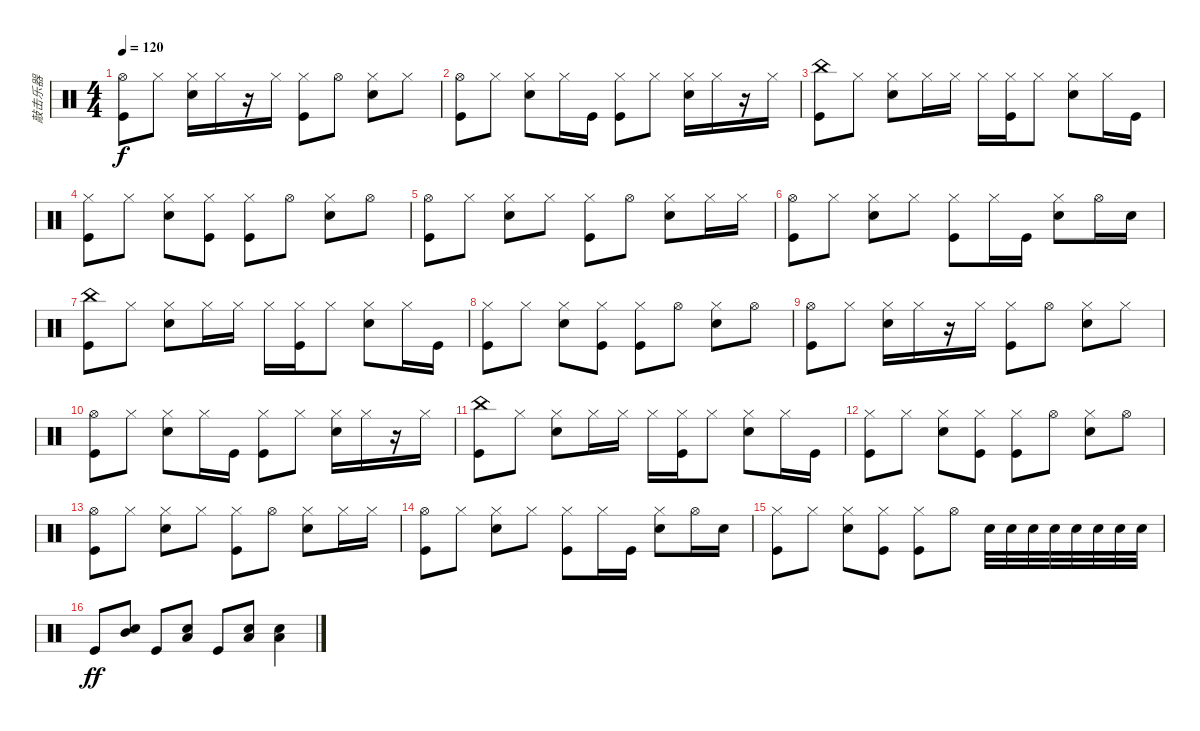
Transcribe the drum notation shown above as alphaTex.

\track ("敲击乐器" "敲击乐器") {instrument percussion}
\staff {score}
\articulation defaults
\ts (4 4)
\tempo 120
\clef neutral
\ks c
("Kick (hit)" "Hi-Hat (open)").8{dy f} "Hi-Hat (closed)".8 ("Snare (hit) 2" "Hi-Hat (closed)").16 "Hi-Hat (closed)".16 r.16 "Hi-Hat (closed)".16 ("Kick (hit)" "Hi-Hat (closed)").8 "Hi-Hat (open)".8 ("Snare (hit) 2" "Hi-Hat (closed)").8 "Hi-Hat (closed)".8 |
("Kick (hit)" "Hi-Hat (open)").8 "Hi-Hat (closed)".8 ("Snare (hit) 2" "Hi-Hat (closed)").8 "Hi-Hat (closed)".16 "Kick (hit)".16 ("Kick (hit)" "Hi-Hat (closed)").8 "Hi-Hat (closed)".8 ("Snare (hit) 2" "Hi-Hat (closed)").16 "Hi-Hat (closed)".16 r.16 "Hi-Hat (closed)".16 |
("Kick (hit)" "China (hit)").8 "Hi-Hat (closed)".8 ("Snare (hit) 2" "Hi-Hat (closed)").8 "Hi-Hat (closed)".16 "Hi-Hat (closed)".16 "Hi-Hat (closed)".16 ("Kick (hit)" "Hi-Hat (closed)").16 "Hi-Hat (closed)".8 ("Snare (hit) 2" "Hi-Hat (closed)").8 "Hi-Hat (closed)".16 "Kick (hit)".16 |
("Kick (hit)" "Hi-Hat (closed)").8 "Hi-Hat (closed)".8 ("Snare (hit) 2" "Hi-Hat (closed)").8 ("Hi-Hat (closed)" "Kick (hit)").8 ("Kick (hit)" "Hi-Hat (closed)").8 "Hi-Hat (open)".8 ("Snare (hit) 2" "Hi-Hat (closed)").8 "Hi-Hat (open)".8 |
("Kick (hit)" "Hi-Hat (open)").8 "Hi-Hat (closed)".8 ("Snare (hit) 2" "Hi-Hat (closed)").8 "Hi-Hat (closed)".8 ("Kick (hit)" "Hi-Hat (closed)").8 "Hi-Hat (open)".8 ("Snare (hit) 2" "Hi-Hat (closed)").8 "Hi-Hat (closed)".16 "Hi-Hat (closed)".16 |
("Kick (hit)" "Hi-Hat (open)").8 "Hi-Hat (closed)".8 ("Snare (hit) 2" "Hi-Hat (closed)").8 "Hi-Hat (closed)".8 ("Kick (hit)" "Hi-Hat (closed)").8 "Hi-Hat (closed)".16 "Kick (hit)".16 ("Snare (hit) 2" "Hi-Hat (closed)").8 "Hi-Hat (open)".16 "Snare (hit) 2".16 |
("Kick (hit)" "China (hit)").8 "Hi-Hat (closed)".8 ("Snare (hit) 2" "Hi-Hat (closed)").8 "Hi-Hat (closed)".16 "Hi-Hat (closed)".16 "Hi-Hat (closed)".16 ("Kick (hit)" "Hi-Hat (closed)").16 "Hi-Hat (closed)".8 ("Snare (hit) 2" "Hi-Hat (closed)").8 "Hi-Hat (closed)".16 "Kick (hit)".16 |
("Kick (hit)" "Hi-Hat (closed)").8 "Hi-Hat (closed)".8 ("Snare (hit) 2" "Hi-Hat (closed)").8 ("Hi-Hat (closed)" "Kick (hit)").8 ("Kick (hit)" "Hi-Hat (closed)").8 "Hi-Hat (open)".8 ("Snare (hit) 2" "Hi-Hat (closed)").8 "Hi-Hat (open)".8 |
("Kick (hit)" "Hi-Hat (open)").8 "Hi-Hat (closed)".8 ("Snare (hit) 2" "Hi-Hat (closed)").16 "Hi-Hat (closed)".16 r.16 "Hi-Hat (closed)".16 ("Kick (hit)" "Hi-Hat (closed)").8 "Hi-Hat (open)".8 ("Snare (hit) 2" "Hi-Hat (closed)").8 "Hi-Hat (closed)".8 |
("Kick (hit)" "Hi-Hat (open)").8 "Hi-Hat (closed)".8 ("Snare (hit) 2" "Hi-Hat (closed)").8 "Hi-Hat (closed)".16 "Kick (hit)".16 ("Kick (hit)" "Hi-Hat (closed)").8 "Hi-Hat (closed)".8 ("Snare (hit) 2" "Hi-Hat (closed)").16 "Hi-Hat (closed)".16 r.16 "Hi-Hat (closed)".16 |
("Kick (hit)" "China (hit)").8 "Hi-Hat (closed)".8 ("Snare (hit) 2" "Hi-Hat (closed)").8 "Hi-Hat (closed)".16 "Hi-Hat (closed)".16 "Hi-Hat (closed)".16 ("Kick (hit)" "Hi-Hat (closed)").16 "Hi-Hat (closed)".8 ("Snare (hit) 2" "Hi-Hat (closed)").8 "Hi-Hat (closed)".16 "Kick (hit)".16 |
("Kick (hit)" "Hi-Hat (closed)").8 "Hi-Hat (closed)".8 ("Snare (hit) 2" "Hi-Hat (closed)").8 ("Hi-Hat (closed)" "Kick (hit)").8 ("Kick (hit)" "Hi-Hat (closed)").8 "Hi-Hat (open)".8 ("Snare (hit) 2" "Hi-Hat (closed)").8 "Hi-Hat (open)".8 |
("Kick (hit)" "Hi-Hat (open)").8 "Hi-Hat (closed)".8 ("Snare (hit) 2" "Hi-Hat (closed)").8 "Hi-Hat (closed)".8 ("Kick (hit)" "Hi-Hat (closed)").8 "Hi-Hat (open)".8 ("Snare (hit) 2" "Hi-Hat (closed)").8 "Hi-Hat (closed)".16 "Hi-Hat (closed)".16 |
("Kick (hit)" "Hi-Hat (open)").8 "Hi-Hat (closed)".8 ("Snare (hit) 2" "Hi-Hat (closed)").8 "Hi-Hat (closed)".8 ("Kick (hit)" "Hi-Hat (closed)").8 "Hi-Hat (closed)".16 "Kick (hit)".16 ("Snare (hit) 2" "Hi-Hat (closed)").8 "Hi-Hat (open)".16 "Snare (hit) 2".16 |
("Kick (hit)" "Hi-Hat (closed)").8 "Hi-Hat (closed)".8 ("Snare (hit) 2" "Hi-Hat (closed)").8 ("Hi-Hat (closed)" "Kick (hit)").8 ("Kick (hit)" "Hi-Hat (closed)").8 "Hi-Hat (open)".8 "Snare (hit) 2".32 "Snare (hit) 2".32 "Snare (hit) 2".32 "Snare (hit) 2".32 "Snare (hit) 2".32 "Snare (hit) 2".32 "Snare (hit) 2".32 "Snare (hit) 2".32 |
"Kick (hit)".8{dy ff} ("Snare (hit) 2" "Mid Tom (hit)").8 "Kick (hit)".8 ("Snare (hit) 2" "Low Tom (hit)").8 "Kick (hit)".8 ("Snare (hit) 2" "Low Tom (hit)").8 ("Snare (hit) 2" "Low Floor Tom (hit)").4
